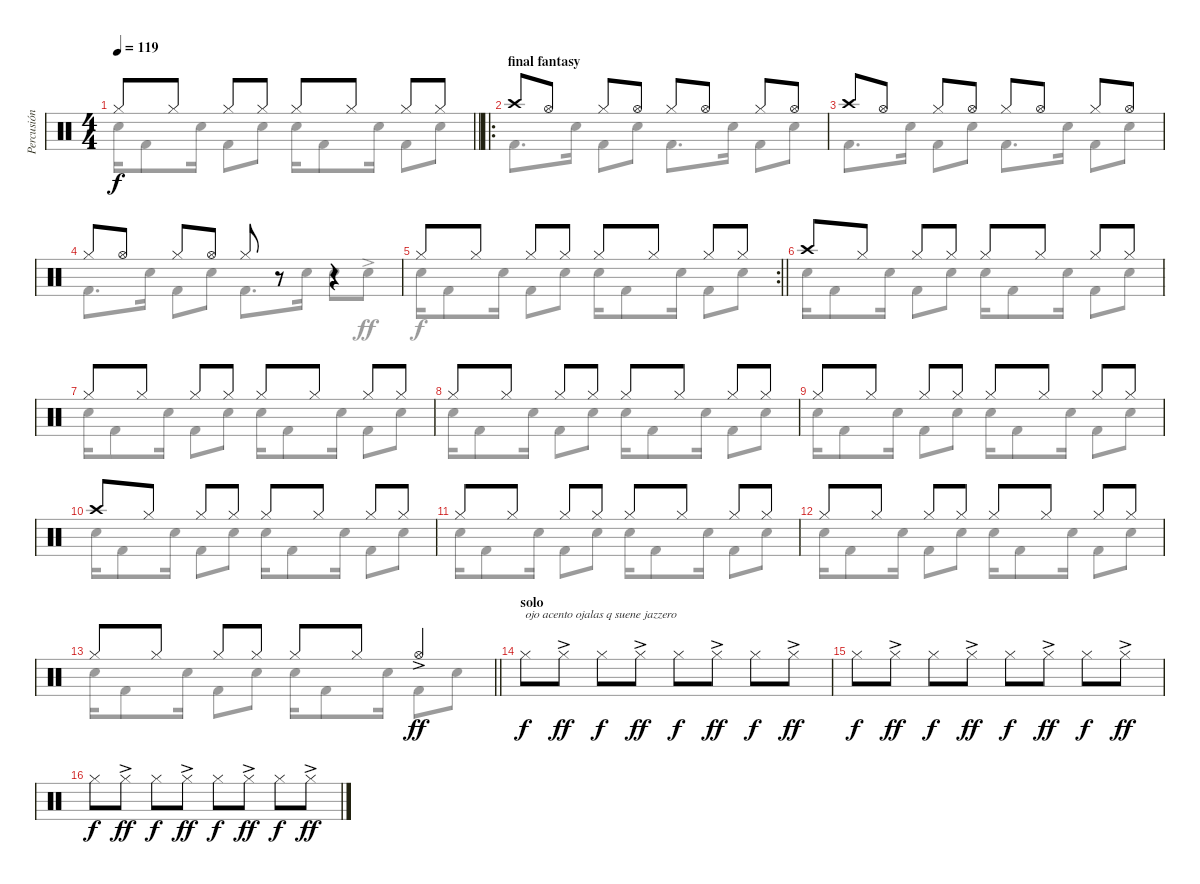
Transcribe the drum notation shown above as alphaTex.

\track ("Percusión" "Percusión") {mute instrument percussion}
\staff {score}
\articulation defaults
\voice
\ts (4 4)
\tempo 119
\clef neutral
\barLineRight lightlight
\ks c "Hi-Hat (closed)".8{dy f} "Hi-Hat (closed)".8 "Hi-Hat (closed)".8 "Hi-Hat (closed)".8 "Hi-Hat (closed)".8 "Hi-Hat (closed)".8 "Hi-Hat (closed)".8 "Hi-Hat (closed)".8
|
\ro
\section ("" "final fantasy")
"Crash high (hit)".8 "Hi-Hat (open)".8 "Hi-Hat (closed)".8 "Hi-Hat (open)".8 "Hi-Hat (closed)".8 "Hi-Hat (open)".8 "Hi-Hat (closed)".8 "Hi-Hat (open)".8 |
"Crash high (hit)".8 "Hi-Hat (open)".8 "Hi-Hat (closed)".8 "Hi-Hat (open)".8 "Hi-Hat (closed)".8 "Hi-Hat (open)".8 "Hi-Hat (closed)".8 "Hi-Hat (open)".8 |
"Hi-Hat (closed)".8 "Hi-Hat (open)".8 "Hi-Hat (closed)".8 "Hi-Hat (open)".8 "Hi-Hat (closed)".8 r.8 r.4 |
\rc 2
\barLineRight lightlight "Hi-Hat (closed)".8 "Hi-Hat (closed)".8 "Hi-Hat (closed)".8 "Hi-Hat (closed)".8 "Hi-Hat (closed)".8 "Hi-Hat (closed)".8 "Hi-Hat (closed)".8 "Hi-Hat (closed)".8
|
\section ("" "")
"Crash high (hit)".8 "Hi-Hat (closed)".8 "Hi-Hat (closed)".8 "Hi-Hat (closed)".8 "Hi-Hat (closed)".8 "Hi-Hat (closed)".8 "Hi-Hat (closed)".8 "Hi-Hat (closed)".8 |
"Hi-Hat (closed)".8 "Hi-Hat (closed)".8 "Hi-Hat (closed)".8 "Hi-Hat (closed)".8 "Hi-Hat (closed)".8 "Hi-Hat (closed)".8 "Hi-Hat (closed)".8 "Hi-Hat (closed)".8 |
"Hi-Hat (closed)".8 "Hi-Hat (closed)".8 "Hi-Hat (closed)".8 "Hi-Hat (closed)".8 "Hi-Hat (closed)".8 "Hi-Hat (closed)".8 "Hi-Hat (closed)".8 "Hi-Hat (closed)".8 |
"Hi-Hat (closed)".8 "Hi-Hat (closed)".8 "Hi-Hat (closed)".8 "Hi-Hat (closed)".8 "Hi-Hat (closed)".8 "Hi-Hat (closed)".8 "Hi-Hat (closed)".8 "Hi-Hat (closed)".8 |
"Crash high (hit)".8 "Hi-Hat (closed)".8 "Hi-Hat (closed)".8 "Hi-Hat (closed)".8 "Hi-Hat (closed)".8 "Hi-Hat (closed)".8 "Hi-Hat (closed)".8 "Hi-Hat (closed)".8 |
"Hi-Hat (closed)".8 "Hi-Hat (closed)".8 "Hi-Hat (closed)".8 "Hi-Hat (closed)".8 "Hi-Hat (closed)".8 "Hi-Hat (closed)".8 "Hi-Hat (closed)".8 "Hi-Hat (closed)".8 |
"Hi-Hat (closed)".8 "Hi-Hat (closed)".8 "Hi-Hat (closed)".8 "Hi-Hat (closed)".8 "Hi-Hat (closed)".8 "Hi-Hat (closed)".8 "Hi-Hat (closed)".8 "Hi-Hat (closed)".8 |
\barLineRight lightlight "Hi-Hat (closed)".8 "Hi-Hat (closed)".8 "Hi-Hat (closed)".8 "Hi-Hat (closed)".8 "Hi-Hat (closed)".8 "Hi-Hat (closed)".8 "Hi-Hat (open)"{ac}.4{dy ff}
|
\section ("" "solo")
"Hi-Hat (closed)".8{txt "ojo acento ojalas q suene jazzero" dy f} "Hi-Hat (closed)"{ac}.8{dy ff} "Hi-Hat (closed)".8{dy f} "Hi-Hat (closed)"{ac}.8{dy ff} "Hi-Hat (closed)".8{dy f} "Hi-Hat (closed)"{ac}.8{dy ff} "Hi-Hat (closed)".8{dy f} "Hi-Hat (closed)"{ac}.8{dy ff} |
"Hi-Hat (closed)".8{dy f} "Hi-Hat (closed)"{ac}.8{dy ff} "Hi-Hat (closed)".8{dy f} "Hi-Hat (closed)"{ac}.8{dy ff} "Hi-Hat (closed)".8{dy f} "Hi-Hat (closed)"{ac}.8{dy ff} "Hi-Hat (closed)".8{dy f} "Hi-Hat (closed)"{ac}.8{dy ff} |
"Hi-Hat (closed)".8{dy f} "Hi-Hat (closed)"{ac}.8{dy ff} "Hi-Hat (closed)".8{dy f} "Hi-Hat (closed)"{ac}.8{dy ff} "Hi-Hat (closed)".8{dy f} "Hi-Hat (closed)"{ac}.8{dy ff} "Hi-Hat (closed)".8{dy f} "Hi-Hat (closed)"{ac}.8{dy ff}
\voice
\clef neutral
\ottava regular
\simile none
\barLineRight lightlight
\ks c "Electric Snare (hit)".16{dy f} "Kick (hit) 2".8 "Electric Snare (hit)".16 "Kick (hit) 2".8 "Electric Snare (hit)".8 "Electric Snare (hit)".16 "Kick (hit) 2".8 "Electric Snare (hit)".16 "Kick (hit) 2".8 "Electric Snare (hit)".8
|
"Kick (hit) 2".8{d} "Electric Snare (hit)".16 "Kick (hit) 2".8 "Electric Snare (hit)".8 "Kick (hit) 2".8{d} "Electric Snare (hit)".16 "Kick (hit) 2".8 "Electric Snare (hit)".8 |
"Kick (hit) 2".8{d} "Electric Snare (hit)".16 "Kick (hit) 2".8 "Electric Snare (hit)".8 "Kick (hit) 2".8{d} "Electric Snare (hit)".16 "Kick (hit) 2".8 "Electric Snare (hit)".8 |
"Kick (hit) 2".8{d} "Electric Snare (hit)".16 "Kick (hit) 2".8 "Electric Snare (hit)".8 "Kick (hit) 2".8{d} "Electric Snare (hit)".16 "Electric Snare (hit)".8 "Electric Snare (hit)"{ac}.8{dy ff} |
\barLineRight lightlight "Electric Snare (hit)".16{dy f} "Kick (hit) 2".8 "Electric Snare (hit)".16 "Kick (hit) 2".8 "Electric Snare (hit)".8 "Electric Snare (hit)".16 "Kick (hit) 2".8 "Electric Snare (hit)".16 "Kick (hit) 2".8 "Electric Snare (hit)".8
|
"Electric Snare (hit)".16 "Kick (hit) 2".8 "Electric Snare (hit)".16 "Kick (hit) 2".8 "Electric Snare (hit)".8 "Electric Snare (hit)".16 "Kick (hit) 2".8 "Electric Snare (hit)".16 "Kick (hit) 2".8 "Electric Snare (hit)".8 |
"Electric Snare (hit)".16 "Kick (hit) 2".8 "Electric Snare (hit)".16 "Kick (hit) 2".8 "Electric Snare (hit)".8 "Electric Snare (hit)".16 "Kick (hit) 2".8 "Electric Snare (hit)".16 "Kick (hit) 2".8 "Electric Snare (hit)".8 |
"Electric Snare (hit)".16 "Kick (hit) 2".8 "Electric Snare (hit)".16 "Kick (hit) 2".8 "Electric Snare (hit)".8 "Electric Snare (hit)".16 "Kick (hit) 2".8 "Electric Snare (hit)".16 "Kick (hit) 2".8 "Electric Snare (hit)".8 |
"Electric Snare (hit)".16 "Kick (hit) 2".8 "Electric Snare (hit)".16 "Kick (hit) 2".8 "Electric Snare (hit)".8 "Electric Snare (hit)".16 "Kick (hit) 2".8 "Electric Snare (hit)".16 "Kick (hit) 2".8 "Electric Snare (hit)".8 |
"Electric Snare (hit)".16 "Kick (hit) 2".8 "Electric Snare (hit)".16 "Kick (hit) 2".8 "Electric Snare (hit)".8 "Electric Snare (hit)".16 "Kick (hit) 2".8 "Electric Snare (hit)".16 "Kick (hit) 2".8 "Electric Snare (hit)".8 |
"Electric Snare (hit)".16 "Kick (hit) 2".8 "Electric Snare (hit)".16 "Kick (hit) 2".8 "Electric Snare (hit)".8 "Electric Snare (hit)".16 "Kick (hit) 2".8 "Electric Snare (hit)".16 "Kick (hit) 2".8 "Electric Snare (hit)".8 |
"Electric Snare (hit)".16 "Kick (hit) 2".8 "Electric Snare (hit)".16 "Kick (hit) 2".8 "Electric Snare (hit)".8 "Electric Snare (hit)".16 "Kick (hit) 2".8 "Electric Snare (hit)".16 "Kick (hit) 2".8 "Electric Snare (hit)".8 |
\barLineRight lightlight "Electric Snare (hit)".16 "Kick (hit) 2".8 "Electric Snare (hit)".16 "Kick (hit) 2".8 "Electric Snare (hit)".8 "Electric Snare (hit)".16 "Kick (hit) 2".8 "Electric Snare (hit)".16 "Kick (hit) 2".8 "Electric Snare (hit)".8
|
|
|
